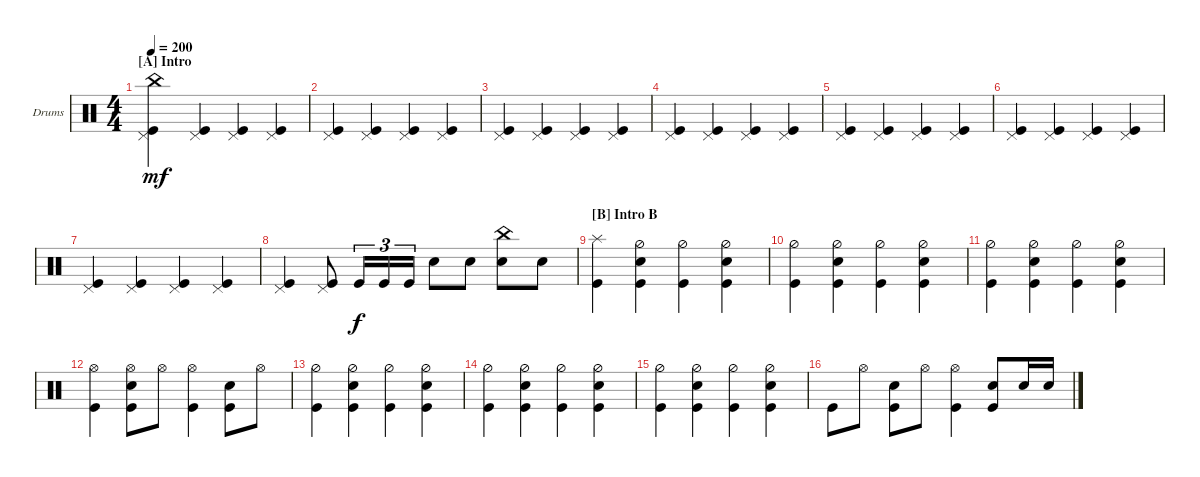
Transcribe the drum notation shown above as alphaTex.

\defaultSystemsLayout 4
\bracketExtendMode groupsimilarinstruments
\firstSystemTrackNameOrientation horizontal
\otherSystemsTrackNameOrientation horizontal
\track ("Drumkit" "Drums") {instrument percussion}
\staff {score}
\articulation defaults
\ts (4 4)
\section ("A" "Intro")
\tempo 200
\clef neutral
\ks c
("China (hit)" "Kick (hit)" "Pedal Hi-Hat (hit)").4{dy mf} ("Kick (hit)" "Pedal Hi-Hat (hit)").4 ("Kick (hit)" "Pedal Hi-Hat (hit)").4 ("Kick (hit)" "Pedal Hi-Hat (hit)").4 |
("Kick (hit)" "Pedal Hi-Hat (hit)").4 ("Kick (hit)" "Pedal Hi-Hat (hit)").4 ("Kick (hit)" "Pedal Hi-Hat (hit)").4 ("Kick (hit)" "Pedal Hi-Hat (hit)").4 |
("Kick (hit)" "Pedal Hi-Hat (hit)").4 ("Kick (hit)" "Pedal Hi-Hat (hit)").4 ("Kick (hit)" "Pedal Hi-Hat (hit)").4 ("Kick (hit)" "Pedal Hi-Hat (hit)").4 |
("Kick (hit)" "Pedal Hi-Hat (hit)").4 ("Kick (hit)" "Pedal Hi-Hat (hit)").4 ("Kick (hit)" "Pedal Hi-Hat (hit)").4 ("Kick (hit)" "Pedal Hi-Hat (hit)").4 |
("Kick (hit)" "Pedal Hi-Hat (hit)").4 ("Kick (hit)" "Pedal Hi-Hat (hit)").4 ("Kick (hit)" "Pedal Hi-Hat (hit)").4 ("Kick (hit)" "Pedal Hi-Hat (hit)").4 |
("Kick (hit)" "Pedal Hi-Hat (hit)").4 ("Kick (hit)" "Pedal Hi-Hat (hit)").4 ("Kick (hit)" "Pedal Hi-Hat (hit)").4 ("Kick (hit)" "Pedal Hi-Hat (hit)").4 |
("Kick (hit)" "Pedal Hi-Hat (hit)").4 ("Kick (hit)" "Pedal Hi-Hat (hit)").4 ("Kick (hit)" "Pedal Hi-Hat (hit)").4 ("Kick (hit)" "Pedal Hi-Hat (hit)").4 |
("Kick (hit)" "Pedal Hi-Hat (hit)").4 ("Kick (hit)" "Pedal Hi-Hat (hit)").8 "Kick (hit)".16{tu (3 2) dy f} "Kick (hit)".16{tu (3 2)} "Kick (hit)".16{tu (3 2)} "Snare (hit) 2".8 "Snare (hit) 2".8 ("Snare (hit) 2" "China (hit)").8 "Snare (hit) 2".8 |
\section ("B" "Intro B")
("Splash (hit)" "Kick (hit)").4 ("Snare (hit) 2" "Kick (hit)" "Hi-Hat (half)").4 ("Kick (hit)" "Hi-Hat (half)").4 ("Snare (hit) 2" "Kick (hit)" "Hi-Hat (half)").4 |
("Kick (hit)" "Hi-Hat (half)").4 ("Snare (hit) 2" "Kick (hit)" "Hi-Hat (half)").4 ("Kick (hit)" "Hi-Hat (half)").4 ("Snare (hit) 2" "Kick (hit)" "Hi-Hat (half)").4 |
("Kick (hit)" "Hi-Hat (half)").4 ("Snare (hit) 2" "Kick (hit)" "Hi-Hat (half)").4 ("Kick (hit)" "Hi-Hat (half)").4 ("Snare (hit) 2" "Kick (hit)" "Hi-Hat (half)").4 |
("Kick (hit)" "Hi-Hat (open)").4 ("Snare (hit) 2" "Kick (hit)" "Hi-Hat (open)").8 "Hi-Hat (open)".8 ("Kick (hit)" "Hi-Hat (open)").4 ("Snare (hit) 2" "Kick (hit)").8 "Hi-Hat (open)".8 |
("Kick (hit)" "Hi-Hat (half)").4 ("Snare (hit) 2" "Kick (hit)" "Hi-Hat (half)").4 ("Kick (hit)" "Hi-Hat (half)").4 ("Snare (hit) 2" "Kick (hit)" "Hi-Hat (half)").4 |
("Kick (hit)" "Hi-Hat (half)").4 ("Snare (hit) 2" "Kick (hit)" "Hi-Hat (half)").4 ("Kick (hit)" "Hi-Hat (half)").4 ("Snare (hit) 2" "Kick (hit)" "Hi-Hat (half)").4 |
("Kick (hit)" "Hi-Hat (half)").4 ("Snare (hit) 2" "Kick (hit)" "Hi-Hat (half)").4 ("Kick (hit)" "Hi-Hat (half)").4 ("Snare (hit) 2" "Kick (hit)" "Hi-Hat (half)").4 |
"Kick (hit)".8 "Hi-Hat (open)".8 ("Snare (hit) 2" "Kick (hit)").8 "Hi-Hat (open)".8 ("Kick (hit)" "Hi-Hat (open)").4 ("Snare (hit) 2" "Kick (hit)").8 "Snare (hit) 2".16 "Snare (hit) 2".16
